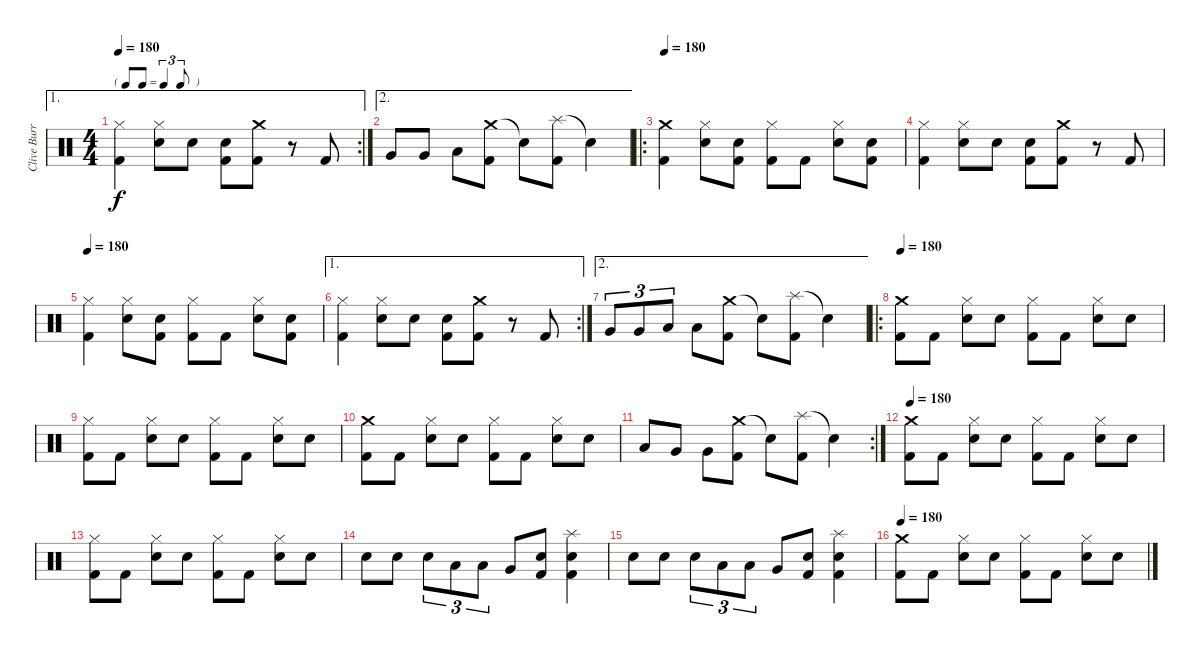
\track ("Clive Burr" "Clive Burr") {instrument percussion}
\staff {score}
\articulation defaults
\ae 1
\rc 2
\ts (4 4)
\tf triplet8th
\tempo 180
\clef neutral
\ks c
("Hi-Hat (closed)" "Kick (hit) 2").4{dy f} ("Hi-Hat (closed)" "Electric Snare (hit)").8 "Electric Snare (hit)".8 ("Electric Snare (hit)" "Kick (hit) 2").8 ("Crash medium (hit)" "Kick (hit) 2").8 r.8 "Kick (hit) 2".8 |
\ae 2 "Very Low Tom (hit)".8 "Very Low Tom (hit)".8 "Low Floor Tom (hit)".8
("Crash medium (hit)" "Kick (hit) 2").8 "Snare (hit)"{t}.8 ("Splash (hit)" "Kick (hit) 2").8 "Snare (hit)"{t}.4 |
\ro
\tempo 180
("Crash medium (hit)" "Kick (hit) 2").4 ("Hi-Hat (closed)" "Electric Snare (hit)").8 ("Electric Snare (hit)" "Kick (hit) 2").8 ("Hi-Hat (closed)" "Kick (hit) 2").8 "Kick (hit) 2".8 ("Hi-Hat (closed)" "Electric Snare (hit)").8 ("Electric Snare (hit)" "Kick (hit) 2").8 |
("Hi-Hat (closed)" "Kick (hit) 2").4 ("Hi-Hat (closed)" "Electric Snare (hit)").8 "Electric Snare (hit)".8 ("Electric Snare (hit)" "Kick (hit) 2").8 ("Crash medium (hit)" "Kick (hit) 2").8 r.8 "Kick (hit) 2".8 |
\tempo 180
("Hi-Hat (closed)" "Kick (hit) 2").4 ("Hi-Hat (closed)" "Electric Snare (hit)").8 ("Electric Snare (hit)" "Kick (hit) 2").8 ("Hi-Hat (closed)" "Kick (hit) 2").8 "Kick (hit) 2".8 ("Hi-Hat (closed)" "Electric Snare (hit)").8 ("Electric Snare (hit)" "Kick (hit) 2").8 |
\ae 1
\rc 2
("Hi-Hat (closed)" "Kick (hit) 2").4 ("Hi-Hat (closed)" "Electric Snare (hit)").8 "Electric Snare (hit)".8 ("Electric Snare (hit)" "Kick (hit) 2").8 ("Crash medium (hit)" "Kick (hit) 2").8 r.8 "Kick (hit) 2".8 |
\ae 2 "Very Low Tom (hit)".8{tu (3 2)} "Very Low Tom (hit)".8{tu (3 2)} "Low Floor Tom (hit)".8{tu (3 2)} "Low Floor Tom (hit)".8
("Crash medium (hit)" "Kick (hit) 2").8 "Snare (hit)"{t}.8 ("Splash (hit)" "Kick (hit) 2").8 "Snare (hit)"{t}.4 |
\ro
\tempo 180
("Crash medium (hit)" "Kick (hit) 2").8 "Kick (hit) 2".8 ("Hi-Hat (closed)" "Electric Snare (hit)").8 "Electric Snare (hit)".8 ("Hi-Hat (closed)" "Kick (hit) 2").8 "Kick (hit) 2".8 ("Hi-Hat (closed)" "Electric Snare (hit)").8 "Electric Snare (hit)".8 |
("Hi-Hat (closed)" "Kick (hit) 2").8 "Kick (hit) 2".8 ("Hi-Hat (closed)" "Electric Snare (hit)").8 "Electric Snare (hit)".8 ("Hi-Hat (closed)" "Kick (hit) 2").8 "Kick (hit) 2".8 ("Hi-Hat (closed)" "Electric Snare (hit)").8 "Electric Snare (hit)".8 |
("Crash medium (hit)" "Kick (hit) 2").8 "Kick (hit) 2".8 ("Hi-Hat (closed)" "Electric Snare (hit)").8 "Electric Snare (hit)".8 ("Hi-Hat (closed)" "Kick (hit) 2").8 "Kick (hit) 2".8 ("Hi-Hat (closed)" "Electric Snare (hit)").8 "Electric Snare (hit)".8 |
\rc 2 "Low Tom (hit)".8 "Very Low Tom (hit)".8 "Very Low Tom (hit)".8
("Crash medium (hit)" "Kick (hit) 2").8 "Snare (hit)"{t}.8 ("Splash (hit)" "Kick (hit) 2").8 "Snare (hit)"{t}.4 |
\tempo 180
("Crash medium (hit)" "Kick (hit) 2").8 "Kick (hit) 2".8 ("Hi-Hat (closed)" "Electric Snare (hit)").8 "Electric Snare (hit)".8 ("Hi-Hat (closed)" "Kick (hit) 2").8 "Kick (hit) 2".8 ("Hi-Hat (closed)" "Electric Snare (hit)").8 "Electric Snare (hit)".8 |
("Hi-Hat (closed)" "Kick (hit) 2").8 "Kick (hit) 2".8 ("Hi-Hat (closed)" "Electric Snare (hit)").8 "Electric Snare (hit)".8 ("Hi-Hat (closed)" "Kick (hit) 2").8 "Kick (hit) 2".8 ("Hi-Hat (closed)" "Electric Snare (hit)").8 "Electric Snare (hit)".8 |
"Electric Snare (hit)".8 "Electric Snare (hit)".8 "Electric Snare (hit)".8{tu (3 2)} "Low Tom (hit)".8{tu (3 2)} "Low Tom (hit)".8{tu (3 2)} "Very Low Tom (hit)".8 ("Electric Snare (hit)" "Kick (hit) 2").8 ("Splash (hit)" "Electric Snare (hit)" "Kick (hit) 2").4 |
"Electric Snare (hit)".8 "Electric Snare (hit)".8 "Electric Snare (hit)".8{tu (3 2)} "Low Tom (hit)".8{tu (3 2)} "Low Tom (hit)".8{tu (3 2)} "Very Low Tom (hit)".8 ("Electric Snare (hit)" "Kick (hit) 2").8 ("Splash (hit)" "Electric Snare (hit)" "Kick (hit) 2").4 |
\tempo 180
("Crash medium (hit)" "Kick (hit) 2").8 "Kick (hit) 2".8 ("Hi-Hat (closed)" "Electric Snare (hit)").8 "Electric Snare (hit)".8 ("Hi-Hat (closed)" "Kick (hit) 2").8 "Kick (hit) 2".8 ("Hi-Hat (closed)" "Electric Snare (hit)").8 "Electric Snare (hit)".8
